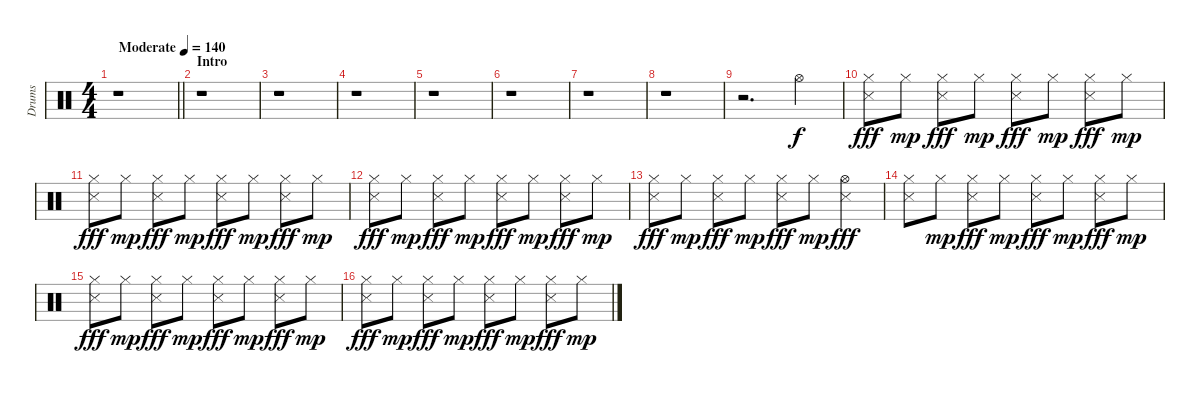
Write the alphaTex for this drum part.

\track ("Drums" "Drums") {instrument percussion}
\staff {score}
\articulation defaults
\ts (4 4)
\tempo (140 "Moderate")
\clef neutral
\barLineRight lightlight
\ks c
r.1{dy f} |
\section ("" "Intro")
r.1 |
r.1 |
r.1 |
r.1 |
r.1 |
r.1 |
r.1 |
r.2{d} "Hi-Hat (open)".4 |
("Hi-Hat (closed)" "Snare (side stick) 3").8{dy fff} "Hi-Hat (closed)".8{dy mp} ("Hi-Hat (closed)" "Snare (side stick) 3").8{dy fff} "Hi-Hat (closed)".8{dy mp} ("Hi-Hat (closed)" "Snare (side stick) 3").8{dy fff} "Hi-Hat (closed)".8{dy mp} ("Hi-Hat (closed)" "Snare (side stick) 3").8{dy fff} "Hi-Hat (closed)".8{dy mp} |
("Hi-Hat (closed)" "Snare (side stick) 3").8{dy fff} "Hi-Hat (closed)".8{dy mp} ("Hi-Hat (closed)" "Snare (side stick) 3").8{dy fff} "Hi-Hat (closed)".8{dy mp} ("Hi-Hat (closed)" "Snare (side stick) 3").8{dy fff} "Hi-Hat (closed)".8{dy mp} ("Hi-Hat (closed)" "Snare (side stick) 3").8{dy fff} "Hi-Hat (closed)".8{dy mp} |
("Hi-Hat (closed)" "Snare (side stick) 3").8{dy fff} "Hi-Hat (closed)".8{dy mp} ("Hi-Hat (closed)" "Snare (side stick) 3").8{dy fff} "Hi-Hat (closed)".8{dy mp} ("Hi-Hat (closed)" "Snare (side stick) 3").8{dy fff} "Hi-Hat (closed)".8{dy mp} ("Hi-Hat (closed)" "Snare (side stick) 3").8{dy fff} "Hi-Hat (closed)".8{dy mp} |
("Hi-Hat (closed)" "Snare (side stick) 3").8{dy fff} "Hi-Hat (closed)".8{dy mp} ("Hi-Hat (closed)" "Snare (side stick) 3").8{dy fff} "Hi-Hat (closed)".8{dy mp} ("Hi-Hat (closed)" "Snare (side stick) 3").8{dy fff} "Hi-Hat (closed)".8{dy mp} ("Hi-Hat (open)" "Snare (side stick) 3").4{dy fff} |
("Hi-Hat (closed)" "Snare (side stick) 3").8 "Hi-Hat (closed)".8{dy mp} ("Hi-Hat (closed)" "Snare (side stick) 3").8{dy fff} "Hi-Hat (closed)".8{dy mp} ("Hi-Hat (closed)" "Snare (side stick) 3").8{dy fff} "Hi-Hat (closed)".8{dy mp} ("Hi-Hat (closed)" "Snare (side stick) 3").8{dy fff} "Hi-Hat (closed)".8{dy mp} |
("Hi-Hat (closed)" "Snare (side stick) 3").8{dy fff} "Hi-Hat (closed)".8{dy mp} ("Hi-Hat (closed)" "Snare (side stick) 3").8{dy fff} "Hi-Hat (closed)".8{dy mp} ("Hi-Hat (closed)" "Snare (side stick) 3").8{dy fff} "Hi-Hat (closed)".8{dy mp} ("Hi-Hat (closed)" "Snare (side stick) 3").8{dy fff} "Hi-Hat (closed)".8{dy mp} |
("Hi-Hat (closed)" "Snare (side stick) 3").8{dy fff} "Hi-Hat (closed)".8{dy mp} ("Hi-Hat (closed)" "Snare (side stick) 3").8{dy fff} "Hi-Hat (closed)".8{dy mp} ("Hi-Hat (closed)" "Snare (side stick) 3").8{dy fff} "Hi-Hat (closed)".8{dy mp} ("Hi-Hat (closed)" "Snare (side stick) 3").8{dy fff} "Hi-Hat (closed)".8{dy mp}
